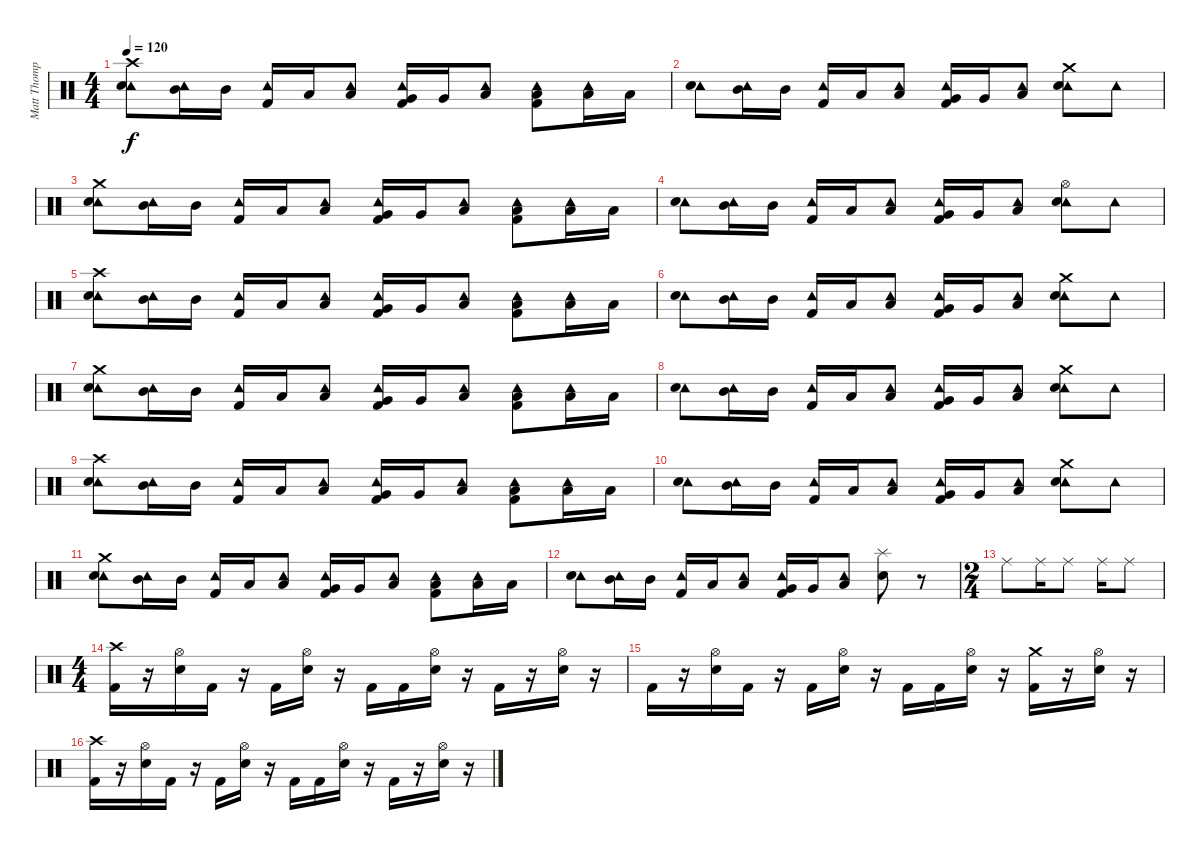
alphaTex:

\track ("Matt Thompson" "Matt Thomp") {instrument percussion}
\staff {score}
\articulation defaults
\ts (4 4)
\tempo 120
\clef neutral
\ks c
("Crash high (hit)" "Tambourine (hit)" "Snare (hit) 2").8{dy f} ("Mid Tom (hit)" "Tambourine (hit)").16 "Mid Tom (hit)".16 ("Tambourine (hit)" "Kick (hit) 2").16 "Low Tom (hit)".16 ("Low Tom (hit)" "Tambourine (hit)").8 ("Very Low Tom (hit)" "Tambourine (hit)" "Kick (hit) 2").16 "Very Low Tom (hit)".16 ("Low Floor Tom (hit)" "Tambourine (hit)").8 ("Low Floor Tom (hit)" "Tambourine (hit)" "Kick (hit) 2").8 ("Low Floor Tom (hit)" "Tambourine (hit)").16 "Low Floor Tom (hit)".16 |
("Tambourine (hit)" "Snare (hit) 2").8 ("Mid Tom (hit)" "Tambourine (hit)").16 "Mid Tom (hit)".16 ("Tambourine (hit)" "Kick (hit) 2").16 "Low Tom (hit)".16 ("Low Tom (hit)" "Tambourine (hit)").8 ("Very Low Tom (hit)" "Tambourine (hit)" "Kick (hit) 2").16 "Very Low Tom (hit)".16 ("Low Floor Tom (hit)" "Tambourine (hit)").8 ("Crash medium (hit)" "Tambourine (hit)" "Snare (hit) 2").8 "Tambourine (hit)".8 |
("Crash medium (hit)" "Tambourine (hit)" "Snare (hit) 2").8 ("Mid Tom (hit)" "Tambourine (hit)").16 "Mid Tom (hit)".16 ("Tambourine (hit)" "Kick (hit) 2").16 "Low Tom (hit)".16 ("Low Tom (hit)" "Tambourine (hit)").8 ("Very Low Tom (hit)" "Tambourine (hit)" "Kick (hit) 2").16 "Very Low Tom (hit)".16 ("Low Floor Tom (hit)" "Tambourine (hit)").8 ("Low Floor Tom (hit)" "Tambourine (hit)" "Kick (hit) 2").8 ("Low Floor Tom (hit)" "Tambourine (hit)").16 "Low Floor Tom (hit)".16 |
("Tambourine (hit)" "Snare (hit) 2").8 ("Mid Tom (hit)" "Tambourine (hit)").16 "Mid Tom (hit)".16 ("Tambourine (hit)" "Kick (hit) 2").16 "Low Tom (hit)".16 ("Low Tom (hit)" "Tambourine (hit)").8 ("Very Low Tom (hit)" "Tambourine (hit)" "Kick (hit) 2").16 "Very Low Tom (hit)".16 ("Low Floor Tom (hit)" "Tambourine (hit)").8 ("Hi-Hat (open)" "Tambourine (hit)" "Snare (hit) 2").8 "Tambourine (hit)".8 |
("Crash high (hit)" "Tambourine (hit)" "Snare (hit) 2").8 ("Mid Tom (hit)" "Tambourine (hit)").16 "Mid Tom (hit)".16 ("Tambourine (hit)" "Kick (hit) 2").16 "Low Tom (hit)".16 ("Low Tom (hit)" "Tambourine (hit)").8 ("Very Low Tom (hit)" "Tambourine (hit)" "Kick (hit) 2").16 "Very Low Tom (hit)".16 ("Low Floor Tom (hit)" "Tambourine (hit)").8 ("Low Floor Tom (hit)" "Tambourine (hit)" "Kick (hit) 2").8 ("Low Floor Tom (hit)" "Tambourine (hit)").16 "Low Floor Tom (hit)".16 |
("Tambourine (hit)" "Snare (hit) 2").8 ("Mid Tom (hit)" "Tambourine (hit)").16 "Mid Tom (hit)".16 ("Tambourine (hit)" "Kick (hit) 2").16 "Low Tom (hit)".16 ("Low Tom (hit)" "Tambourine (hit)").8 ("Very Low Tom (hit)" "Tambourine (hit)" "Kick (hit) 2").16 "Very Low Tom (hit)".16 ("Low Floor Tom (hit)" "Tambourine (hit)").8 ("Crash medium (hit)" "Tambourine (hit)" "Snare (hit) 2").8 "Tambourine (hit)".8 |
("Crash medium (hit)" "Tambourine (hit)" "Snare (hit) 2").8 ("Mid Tom (hit)" "Tambourine (hit)").16 "Mid Tom (hit)".16 ("Tambourine (hit)" "Kick (hit) 2").16 "Low Tom (hit)".16 ("Low Tom (hit)" "Tambourine (hit)").8 ("Very Low Tom (hit)" "Tambourine (hit)" "Kick (hit) 2").16 "Very Low Tom (hit)".16 ("Low Floor Tom (hit)" "Tambourine (hit)").8 ("Low Floor Tom (hit)" "Tambourine (hit)" "Kick (hit) 2").8 ("Low Floor Tom (hit)" "Tambourine (hit)").16 "Low Floor Tom (hit)".16 |
("Tambourine (hit)" "Snare (hit) 2").8 ("Mid Tom (hit)" "Tambourine (hit)").16 "Mid Tom (hit)".16 ("Tambourine (hit)" "Kick (hit) 2").16 "Low Tom (hit)".16 ("Low Tom (hit)" "Tambourine (hit)").8 ("Very Low Tom (hit)" "Tambourine (hit)" "Kick (hit) 2").16 "Very Low Tom (hit)".16 ("Low Floor Tom (hit)" "Tambourine (hit)").8 ("Crash medium (hit)" "Tambourine (hit)" "Snare (hit) 2").8 "Tambourine (hit)".8 |
("Crash high (hit)" "Tambourine (hit)" "Snare (hit) 2").8 ("Mid Tom (hit)" "Tambourine (hit)").16 "Mid Tom (hit)".16 ("Tambourine (hit)" "Kick (hit) 2").16 "Low Tom (hit)".16 ("Low Tom (hit)" "Tambourine (hit)").8 ("Very Low Tom (hit)" "Tambourine (hit)" "Kick (hit) 2").16 "Very Low Tom (hit)".16 ("Low Floor Tom (hit)" "Tambourine (hit)").8 ("Low Floor Tom (hit)" "Tambourine (hit)" "Kick (hit) 2").8 ("Low Floor Tom (hit)" "Tambourine (hit)").16 "Low Floor Tom (hit)".16 |
("Tambourine (hit)" "Snare (hit) 2").8 ("Mid Tom (hit)" "Tambourine (hit)").16 "Mid Tom (hit)".16 ("Tambourine (hit)" "Kick (hit) 2").16 "Low Tom (hit)".16 ("Low Tom (hit)" "Tambourine (hit)").8 ("Very Low Tom (hit)" "Tambourine (hit)" "Kick (hit) 2").16 "Very Low Tom (hit)".16 ("Low Floor Tom (hit)" "Tambourine (hit)").8 ("Crash medium (hit)" "Tambourine (hit)" "Snare (hit) 2").8 "Tambourine (hit)".8 |
("Crash medium (hit)" "Tambourine (hit)" "Snare (hit) 2").8 ("Mid Tom (hit)" "Tambourine (hit)").16 "Mid Tom (hit)".16 ("Tambourine (hit)" "Kick (hit) 2").16 "Low Tom (hit)".16 ("Low Tom (hit)" "Tambourine (hit)").8 ("Very Low Tom (hit)" "Tambourine (hit)" "Kick (hit) 2").16 "Very Low Tom (hit)".16 ("Low Floor Tom (hit)" "Tambourine (hit)").8 ("Low Floor Tom (hit)" "Tambourine (hit)" "Kick (hit) 2").8 ("Low Floor Tom (hit)" "Tambourine (hit)").16 "Low Floor Tom (hit)".16 |
("Tambourine (hit)" "Snare (hit) 2").8 ("Mid Tom (hit)" "Tambourine (hit)").16 "Mid Tom (hit)".16 ("Tambourine (hit)" "Kick (hit) 2").16 "Low Tom (hit)".16 ("Low Tom (hit)" "Tambourine (hit)").8 ("Very Low Tom (hit)" "Tambourine (hit)" "Kick (hit) 2").16 "Very Low Tom (hit)".16 ("Low Floor Tom (hit)" "Tambourine (hit)").8 ("Splash (hit)" "Snare (hit) 2").8 r.8 |
\ts (2 4)
"Ride (middle)".8 "Ride (middle)".16 "Ride (middle)".8 "Ride (middle)".16 "Ride (middle)".8 |
\ts (4 4)
("Crash high (hit)" "Kick (hit) 2").16 r.16 ("Hi-Hat (open)" "Snare (hit) 2").16 "Kick (hit) 2".16 r.16 "Kick (hit) 2".16 ("Hi-Hat (open)" "Snare (hit) 2").16 r.16 "Kick (hit) 2".16 "Kick (hit) 2".16 ("Hi-Hat (open)" "Snare (hit) 2").16 r.16 "Kick (hit) 2".16 r.16 ("Hi-Hat (open)" "Snare (hit) 2").16 r.16 |
"Kick (hit) 2".16 r.16 ("Hi-Hat (open)" "Snare (hit) 2").16 "Kick (hit) 2".16 r.16 "Kick (hit) 2".16 ("Hi-Hat (open)" "Snare (hit) 2").16 r.16 "Kick (hit) 2".16 "Kick (hit) 2".16 ("Hi-Hat (open)" "Snare (hit) 2").16 r.16 ("Crash medium (hit)" "Kick (hit) 2").16 r.16 ("Hi-Hat (open)" "Snare (hit) 2").16 r.16 |
("Crash high (hit)" "Kick (hit) 2").16 r.16 ("Hi-Hat (open)" "Snare (hit) 2").16 "Kick (hit) 2".16 r.16 "Kick (hit) 2".16 ("Hi-Hat (open)" "Snare (hit) 2").16 r.16 "Kick (hit) 2".16 "Kick (hit) 2".16 ("Hi-Hat (open)" "Snare (hit) 2").16 r.16 "Kick (hit) 2".16 r.16 ("Hi-Hat (open)" "Snare (hit) 2").16 r.16
